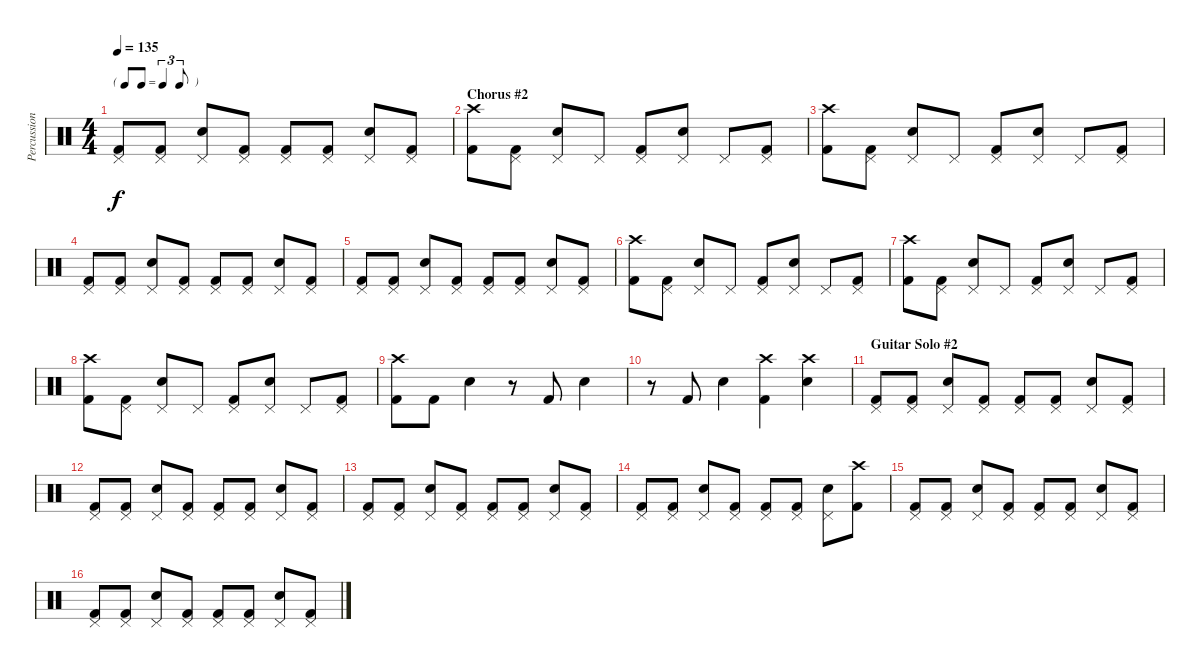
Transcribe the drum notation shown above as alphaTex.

\track ("Percussion" "Percussion") {instrument percussion}
\staff {score}
\articulation defaults
\ts (4 4)
\tf triplet8th
\tempo 135
\clef neutral
\ks c
("Pedal Hi-Hat (hit)" "Kick (hit) 2").8{dy f} ("Pedal Hi-Hat (hit)" "Kick (hit) 2").8 ("Pedal Hi-Hat (hit)" "Electric Snare (hit)").8 ("Pedal Hi-Hat (hit)" "Kick (hit) 2").8 ("Pedal Hi-Hat (hit)" "Kick (hit) 2").8 ("Pedal Hi-Hat (hit)" "Kick (hit) 2").8 ("Pedal Hi-Hat (hit)" "Electric Snare (hit)").8 ("Pedal Hi-Hat (hit)" "Kick (hit) 2").8 |
\section ("" "Chorus #2")
("Crash high (hit)" "Kick (hit) 2").8 ("Pedal Hi-Hat (hit)" "Kick (hit) 2").8 ("Pedal Hi-Hat (hit)" "Electric Snare (hit)").8 "Pedal Hi-Hat (hit)".8 ("Pedal Hi-Hat (hit)" "Kick (hit) 2").8 ("Pedal Hi-Hat (hit)" "Electric Snare (hit)").8 "Pedal Hi-Hat (hit)".8 ("Pedal Hi-Hat (hit)" "Kick (hit) 2").8 |
("Crash high (hit)" "Kick (hit) 2").8 ("Pedal Hi-Hat (hit)" "Kick (hit) 2").8 ("Pedal Hi-Hat (hit)" "Electric Snare (hit)").8 "Pedal Hi-Hat (hit)".8 ("Pedal Hi-Hat (hit)" "Kick (hit) 2").8 ("Pedal Hi-Hat (hit)" "Electric Snare (hit)").8 "Pedal Hi-Hat (hit)".8 ("Pedal Hi-Hat (hit)" "Kick (hit) 2").8 |
("Pedal Hi-Hat (hit)" "Kick (hit) 2").8 ("Pedal Hi-Hat (hit)" "Kick (hit) 2").8 ("Pedal Hi-Hat (hit)" "Electric Snare (hit)").8 ("Pedal Hi-Hat (hit)" "Kick (hit) 2").8 ("Pedal Hi-Hat (hit)" "Kick (hit) 2").8 ("Pedal Hi-Hat (hit)" "Kick (hit) 2").8 ("Pedal Hi-Hat (hit)" "Electric Snare (hit)").8 ("Pedal Hi-Hat (hit)" "Kick (hit) 2").8 |
("Pedal Hi-Hat (hit)" "Kick (hit) 2").8 ("Pedal Hi-Hat (hit)" "Kick (hit) 2").8 ("Pedal Hi-Hat (hit)" "Electric Snare (hit)").8 ("Pedal Hi-Hat (hit)" "Kick (hit) 2").8 ("Pedal Hi-Hat (hit)" "Kick (hit) 2").8 ("Pedal Hi-Hat (hit)" "Kick (hit) 2").8 ("Pedal Hi-Hat (hit)" "Electric Snare (hit)").8 ("Pedal Hi-Hat (hit)" "Kick (hit) 2").8 |
("Crash high (hit)" "Kick (hit) 2").8 ("Pedal Hi-Hat (hit)" "Kick (hit) 2").8 ("Pedal Hi-Hat (hit)" "Electric Snare (hit)").8 "Pedal Hi-Hat (hit)".8 ("Pedal Hi-Hat (hit)" "Kick (hit) 2").8 ("Pedal Hi-Hat (hit)" "Electric Snare (hit)").8 "Pedal Hi-Hat (hit)".8 ("Pedal Hi-Hat (hit)" "Kick (hit) 2").8 |
("Crash high (hit)" "Kick (hit) 2").8 ("Pedal Hi-Hat (hit)" "Kick (hit) 2").8 ("Pedal Hi-Hat (hit)" "Electric Snare (hit)").8 "Pedal Hi-Hat (hit)".8 ("Pedal Hi-Hat (hit)" "Kick (hit) 2").8 ("Pedal Hi-Hat (hit)" "Electric Snare (hit)").8 "Pedal Hi-Hat (hit)".8 ("Pedal Hi-Hat (hit)" "Kick (hit) 2").8 |
("Crash high (hit)" "Kick (hit) 2").8 ("Pedal Hi-Hat (hit)" "Kick (hit) 2").8 ("Pedal Hi-Hat (hit)" "Electric Snare (hit)").8 "Pedal Hi-Hat (hit)".8 ("Pedal Hi-Hat (hit)" "Kick (hit) 2").8 ("Pedal Hi-Hat (hit)" "Electric Snare (hit)").8 "Pedal Hi-Hat (hit)".8 ("Pedal Hi-Hat (hit)" "Kick (hit) 2").8 |
("Crash high (hit)" "Kick (hit) 2").8 "Kick (hit) 2".8 "Electric Snare (hit)".4 r.8 "Kick (hit) 2".8 "Electric Snare (hit)".4 |
r.8 "Kick (hit) 2".8 "Electric Snare (hit)".4 ("Crash high (hit)" "Kick (hit) 2").4 ("Crash high (hit)" "Electric Snare (hit)").4 |
\section ("" "Guitar Solo #2")
("Pedal Hi-Hat (hit)" "Kick (hit) 2").8 ("Pedal Hi-Hat (hit)" "Kick (hit) 2").8 ("Pedal Hi-Hat (hit)" "Electric Snare (hit)").8 ("Pedal Hi-Hat (hit)" "Kick (hit) 2").8 ("Pedal Hi-Hat (hit)" "Kick (hit) 2").8 ("Pedal Hi-Hat (hit)" "Kick (hit) 2").8 ("Pedal Hi-Hat (hit)" "Electric Snare (hit)").8 ("Pedal Hi-Hat (hit)" "Kick (hit) 2").8 |
("Pedal Hi-Hat (hit)" "Kick (hit) 2").8 ("Pedal Hi-Hat (hit)" "Kick (hit) 2").8 ("Pedal Hi-Hat (hit)" "Electric Snare (hit)").8 ("Pedal Hi-Hat (hit)" "Kick (hit) 2").8 ("Pedal Hi-Hat (hit)" "Kick (hit) 2").8 ("Pedal Hi-Hat (hit)" "Kick (hit) 2").8 ("Pedal Hi-Hat (hit)" "Electric Snare (hit)").8 ("Pedal Hi-Hat (hit)" "Kick (hit) 2").8 |
("Pedal Hi-Hat (hit)" "Kick (hit) 2").8 ("Pedal Hi-Hat (hit)" "Kick (hit) 2").8 ("Pedal Hi-Hat (hit)" "Electric Snare (hit)").8 ("Pedal Hi-Hat (hit)" "Kick (hit) 2").8 ("Pedal Hi-Hat (hit)" "Kick (hit) 2").8 ("Pedal Hi-Hat (hit)" "Kick (hit) 2").8 ("Pedal Hi-Hat (hit)" "Electric Snare (hit)").8 ("Pedal Hi-Hat (hit)" "Kick (hit) 2").8 |
("Pedal Hi-Hat (hit)" "Kick (hit) 2").8 ("Pedal Hi-Hat (hit)" "Kick (hit) 2").8 ("Pedal Hi-Hat (hit)" "Electric Snare (hit)").8 ("Pedal Hi-Hat (hit)" "Kick (hit) 2").8 ("Pedal Hi-Hat (hit)" "Kick (hit) 2").8 ("Pedal Hi-Hat (hit)" "Kick (hit) 2").8 ("Pedal Hi-Hat (hit)" "Electric Snare (hit)").8 ("Crash high (hit)" "Kick (hit) 2").8 |
("Pedal Hi-Hat (hit)" "Kick (hit) 2").8 ("Pedal Hi-Hat (hit)" "Kick (hit) 2").8 ("Pedal Hi-Hat (hit)" "Electric Snare (hit)").8 ("Pedal Hi-Hat (hit)" "Kick (hit) 2").8 ("Pedal Hi-Hat (hit)" "Kick (hit) 2").8 ("Pedal Hi-Hat (hit)" "Kick (hit) 2").8 ("Pedal Hi-Hat (hit)" "Electric Snare (hit)").8 ("Pedal Hi-Hat (hit)" "Kick (hit) 2").8 |
("Pedal Hi-Hat (hit)" "Kick (hit) 2").8 ("Pedal Hi-Hat (hit)" "Kick (hit) 2").8 ("Pedal Hi-Hat (hit)" "Electric Snare (hit)").8 ("Pedal Hi-Hat (hit)" "Kick (hit) 2").8 ("Pedal Hi-Hat (hit)" "Kick (hit) 2").8 ("Pedal Hi-Hat (hit)" "Kick (hit) 2").8 ("Pedal Hi-Hat (hit)" "Electric Snare (hit)").8 ("Pedal Hi-Hat (hit)" "Kick (hit) 2").8
